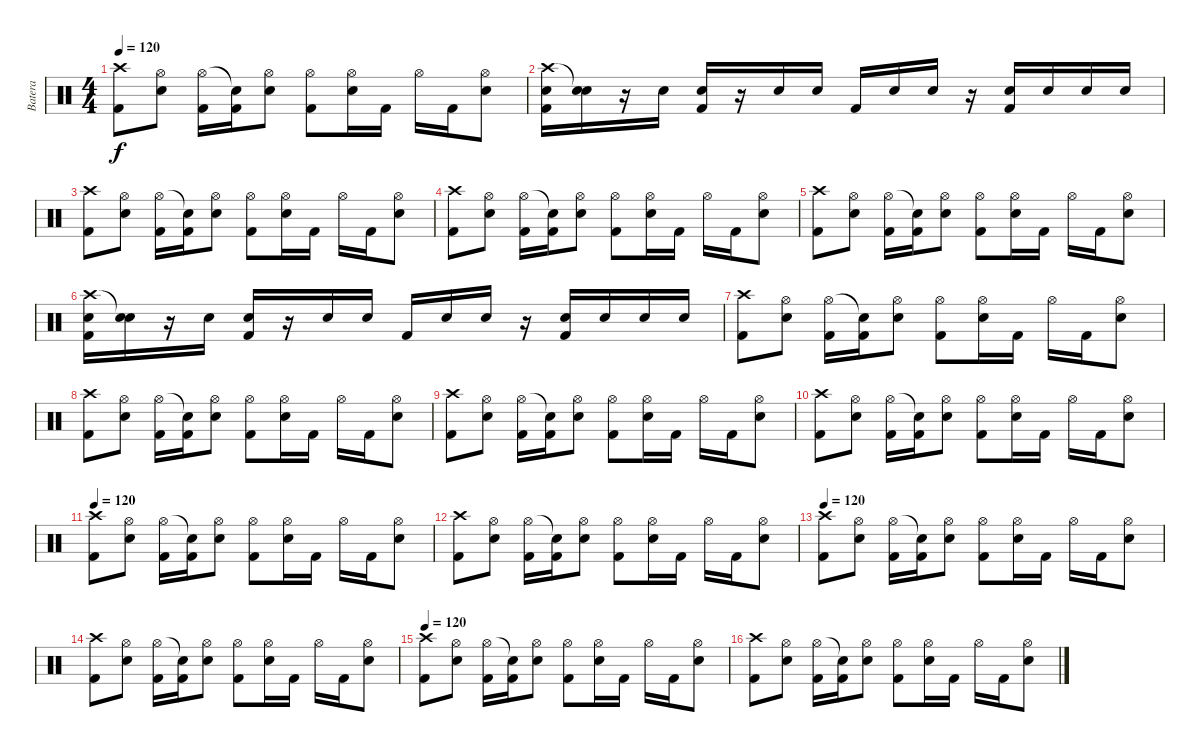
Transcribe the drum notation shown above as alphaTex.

\track ("Batera" "Batera") {instrument percussion}
\staff {score}
\articulation defaults
\ts (4 4)
\tempo 120
\clef neutral
\ks c
("Crash high (hit)" "Kick (hit) 2").8{dy f} ("Hi-Hat (open)" "Electric Snare (hit)").8 ("Hi-Hat (open)" "Kick (hit) 2").16 ("Snare (hit)"{t} "Kick (hit) 2").16 ("Hi-Hat (open)" "Electric Snare (hit)").8 ("Hi-Hat (open)" "Kick (hit) 2").8 ("Hi-Hat (open)" "Electric Snare (hit)").16 "Kick (hit) 2".16 "Hi-Hat (open)".16 "Kick (hit) 2".16 ("Hi-Hat (open)" "Electric Snare (hit)").8 |
("Crash high (hit)" "Electric Snare (hit)" "Kick (hit) 2").16 ("Snare (hit)"{t} "Electric Snare (hit)").16 r.16 "Electric Snare (hit)".16 ("Electric Snare (hit)" "Kick (hit) 2").16 r.16 "Electric Snare (hit)".16 "Electric Snare (hit)".16 "Kick (hit) 2".16 "Electric Snare (hit)".16 "Electric Snare (hit)".16 r.16 ("Electric Snare (hit)" "Kick (hit) 2").16 "Electric Snare (hit)".16 "Electric Snare (hit)".16 "Electric Snare (hit)".16 |
("Crash high (hit)" "Kick (hit) 2").8 ("Hi-Hat (open)" "Electric Snare (hit)").8 ("Hi-Hat (open)" "Kick (hit) 2").16 ("Snare (hit)"{t} "Kick (hit) 2").16 ("Hi-Hat (open)" "Electric Snare (hit)").8 ("Hi-Hat (open)" "Kick (hit) 2").8 ("Hi-Hat (open)" "Electric Snare (hit)").16 "Kick (hit) 2".16 "Hi-Hat (open)".16 "Kick (hit) 2".16 ("Hi-Hat (open)" "Electric Snare (hit)").8 |
("Crash high (hit)" "Kick (hit) 2").8 ("Hi-Hat (open)" "Electric Snare (hit)").8 ("Hi-Hat (open)" "Kick (hit) 2").16 ("Snare (hit)"{t} "Kick (hit) 2").16 ("Hi-Hat (open)" "Electric Snare (hit)").8 ("Hi-Hat (open)" "Kick (hit) 2").8 ("Hi-Hat (open)" "Electric Snare (hit)").16 "Kick (hit) 2".16 "Hi-Hat (open)".16 "Kick (hit) 2".16 ("Hi-Hat (open)" "Electric Snare (hit)").8 |
("Crash high (hit)" "Kick (hit) 2").8 ("Hi-Hat (open)" "Electric Snare (hit)").8 ("Hi-Hat (open)" "Kick (hit) 2").16 ("Snare (hit)"{t} "Kick (hit) 2").16 ("Hi-Hat (open)" "Electric Snare (hit)").8 ("Hi-Hat (open)" "Kick (hit) 2").8 ("Hi-Hat (open)" "Electric Snare (hit)").16 "Kick (hit) 2".16 "Hi-Hat (open)".16 "Kick (hit) 2".16 ("Hi-Hat (open)" "Electric Snare (hit)").8 |
("Crash high (hit)" "Electric Snare (hit)" "Kick (hit) 2").16 ("Snare (hit)"{t} "Electric Snare (hit)").16 r.16 "Electric Snare (hit)".16 ("Electric Snare (hit)" "Kick (hit) 2").16 r.16 "Electric Snare (hit)".16 "Electric Snare (hit)".16 "Kick (hit) 2".16 "Electric Snare (hit)".16 "Electric Snare (hit)".16 r.16 ("Electric Snare (hit)" "Kick (hit) 2").16 "Electric Snare (hit)".16 "Electric Snare (hit)".16 "Electric Snare (hit)".16 |
("Crash high (hit)" "Kick (hit) 2").8 ("Hi-Hat (open)" "Electric Snare (hit)").8 ("Hi-Hat (open)" "Kick (hit) 2").16 ("Snare (hit)"{t} "Kick (hit) 2").16 ("Hi-Hat (open)" "Electric Snare (hit)").8 ("Hi-Hat (open)" "Kick (hit) 2").8 ("Hi-Hat (open)" "Electric Snare (hit)").16 "Kick (hit) 2".16 "Hi-Hat (open)".16 "Kick (hit) 2".16 ("Hi-Hat (open)" "Electric Snare (hit)").8 |
("Crash high (hit)" "Kick (hit) 2").8 ("Hi-Hat (open)" "Electric Snare (hit)").8 ("Hi-Hat (open)" "Kick (hit) 2").16 ("Snare (hit)"{t} "Kick (hit) 2").16 ("Hi-Hat (open)" "Electric Snare (hit)").8 ("Hi-Hat (open)" "Kick (hit) 2").8 ("Hi-Hat (open)" "Electric Snare (hit)").16 "Kick (hit) 2".16 "Hi-Hat (open)".16 "Kick (hit) 2".16 ("Hi-Hat (open)" "Electric Snare (hit)").8 |
("Crash high (hit)" "Kick (hit) 2").8 ("Hi-Hat (open)" "Electric Snare (hit)").8 ("Hi-Hat (open)" "Kick (hit) 2").16 ("Snare (hit)"{t} "Kick (hit) 2").16 ("Hi-Hat (open)" "Electric Snare (hit)").8 ("Hi-Hat (open)" "Kick (hit) 2").8 ("Hi-Hat (open)" "Electric Snare (hit)").16 "Kick (hit) 2".16 "Hi-Hat (open)".16 "Kick (hit) 2".16 ("Hi-Hat (open)" "Electric Snare (hit)").8 |
("Crash high (hit)" "Kick (hit) 2").8 ("Hi-Hat (open)" "Electric Snare (hit)").8 ("Hi-Hat (open)" "Kick (hit) 2").16 ("Snare (hit)"{t} "Kick (hit) 2").16 ("Hi-Hat (open)" "Electric Snare (hit)").8 ("Hi-Hat (open)" "Kick (hit) 2").8 ("Hi-Hat (open)" "Electric Snare (hit)").16 "Kick (hit) 2".16 "Hi-Hat (open)".16 "Kick (hit) 2".16 ("Hi-Hat (open)" "Electric Snare (hit)").8 |
\tempo 120
("Crash high (hit)" "Kick (hit) 2").8 ("Hi-Hat (open)" "Electric Snare (hit)").8 ("Hi-Hat (open)" "Kick (hit) 2").16 ("Snare (hit)"{t} "Kick (hit) 2").16 ("Hi-Hat (open)" "Electric Snare (hit)").8 ("Hi-Hat (open)" "Kick (hit) 2").8 ("Hi-Hat (open)" "Electric Snare (hit)").16 "Kick (hit) 2".16 "Hi-Hat (open)".16 "Kick (hit) 2".16 ("Hi-Hat (open)" "Electric Snare (hit)").8 |
("Crash high (hit)" "Kick (hit) 2").8 ("Hi-Hat (open)" "Electric Snare (hit)").8 ("Hi-Hat (open)" "Kick (hit) 2").16 ("Snare (hit)"{t} "Kick (hit) 2").16 ("Hi-Hat (open)" "Electric Snare (hit)").8 ("Hi-Hat (open)" "Kick (hit) 2").8 ("Hi-Hat (open)" "Electric Snare (hit)").16 "Kick (hit) 2".16 "Hi-Hat (open)".16 "Kick (hit) 2".16 ("Hi-Hat (open)" "Electric Snare (hit)").8 |
\tempo 120
("Crash high (hit)" "Kick (hit) 2").8 ("Hi-Hat (open)" "Electric Snare (hit)").8 ("Hi-Hat (open)" "Kick (hit) 2").16 ("Snare (hit)"{t} "Kick (hit) 2").16 ("Hi-Hat (open)" "Electric Snare (hit)").8 ("Hi-Hat (open)" "Kick (hit) 2").8 ("Hi-Hat (open)" "Electric Snare (hit)").16 "Kick (hit) 2".16 "Hi-Hat (open)".16 "Kick (hit) 2".16 ("Hi-Hat (open)" "Electric Snare (hit)").8 |
("Crash high (hit)" "Kick (hit) 2").8 ("Hi-Hat (open)" "Electric Snare (hit)").8 ("Hi-Hat (open)" "Kick (hit) 2").16 ("Snare (hit)"{t} "Kick (hit) 2").16 ("Hi-Hat (open)" "Electric Snare (hit)").8 ("Hi-Hat (open)" "Kick (hit) 2").8 ("Hi-Hat (open)" "Electric Snare (hit)").16 "Kick (hit) 2".16 "Hi-Hat (open)".16 "Kick (hit) 2".16 ("Hi-Hat (open)" "Electric Snare (hit)").8 |
\tempo 120
("Crash high (hit)" "Kick (hit) 2").8 ("Hi-Hat (open)" "Electric Snare (hit)").8 ("Hi-Hat (open)" "Kick (hit) 2").16 ("Snare (hit)"{t} "Kick (hit) 2").16 ("Hi-Hat (open)" "Electric Snare (hit)").8 ("Hi-Hat (open)" "Kick (hit) 2").8 ("Hi-Hat (open)" "Electric Snare (hit)").16 "Kick (hit) 2".16 "Hi-Hat (open)".16 "Kick (hit) 2".16 ("Hi-Hat (open)" "Electric Snare (hit)").8 |
("Crash high (hit)" "Kick (hit) 2").8 ("Hi-Hat (open)" "Electric Snare (hit)").8 ("Hi-Hat (open)" "Kick (hit) 2").16 ("Snare (hit)"{t} "Kick (hit) 2").16 ("Hi-Hat (open)" "Electric Snare (hit)").8 ("Hi-Hat (open)" "Kick (hit) 2").8 ("Hi-Hat (open)" "Electric Snare (hit)").16 "Kick (hit) 2".16 "Hi-Hat (open)".16 "Kick (hit) 2".16 ("Hi-Hat (open)" "Electric Snare (hit)").8
